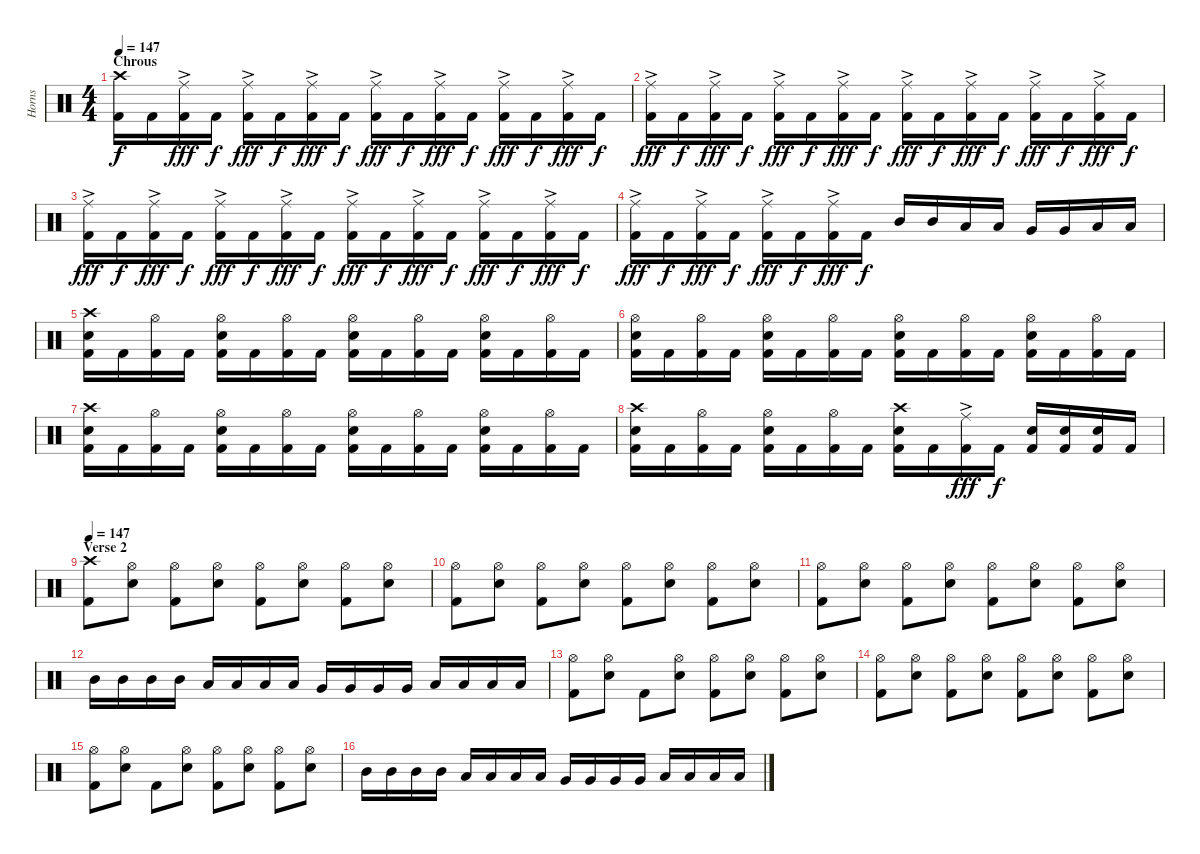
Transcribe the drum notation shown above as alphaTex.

\track ("Horns" "Horns") {instrument percussion}
\staff {score}
\articulation defaults
\ts (4 4)
\section ("" "Chrous")
\tempo 147
\clef neutral
\ks c
("Crash high (hit)" "Kick (hit) 2").16{dy f} "Kick (hit) 2".16 ("Ride (middle)"{ac} "Kick (hit) 2").16{dy fff} "Kick (hit) 2".16{dy f} ("Ride (middle)"{ac} "Kick (hit) 2").16{dy fff} "Kick (hit) 2".16{dy f} ("Ride (middle)"{ac} "Kick (hit) 2").16{dy fff} "Kick (hit) 2".16{dy f} ("Ride (middle)"{ac} "Kick (hit) 2").16{dy fff} "Kick (hit) 2".16{dy f} ("Ride (middle)"{ac} "Kick (hit) 2").16{dy fff} "Kick (hit) 2".16{dy f} ("Ride (middle)"{ac} "Kick (hit) 2").16{dy fff} "Kick (hit) 2".16{dy f} ("Ride (middle)"{ac} "Kick (hit) 2").16{dy fff} "Kick (hit) 2".16{dy f} |
("Ride (middle)"{ac} "Kick (hit) 2").16{dy fff} "Kick (hit) 2".16{dy f} ("Ride (middle)"{ac} "Kick (hit) 2").16{dy fff} "Kick (hit) 2".16{dy f} ("Ride (middle)"{ac} "Kick (hit) 2").16{dy fff} "Kick (hit) 2".16{dy f} ("Ride (middle)"{ac} "Kick (hit) 2").16{dy fff} "Kick (hit) 2".16{dy f} ("Ride (middle)"{ac} "Kick (hit) 2").16{dy fff} "Kick (hit) 2".16{dy f} ("Ride (middle)"{ac} "Kick (hit) 2").16{dy fff} "Kick (hit) 2".16{dy f} ("Ride (middle)"{ac} "Kick (hit) 2").16{dy fff} "Kick (hit) 2".16{dy f} ("Ride (middle)"{ac} "Kick (hit) 2").16{dy fff} "Kick (hit) 2".16{dy f} |
("Ride (middle)"{ac} "Kick (hit) 2").16{dy fff} "Kick (hit) 2".16{dy f} ("Ride (middle)"{ac} "Kick (hit) 2").16{dy fff} "Kick (hit) 2".16{dy f} ("Ride (middle)"{ac} "Kick (hit) 2").16{dy fff} "Kick (hit) 2".16{dy f} ("Ride (middle)"{ac} "Kick (hit) 2").16{dy fff} "Kick (hit) 2".16{dy f} ("Ride (middle)"{ac} "Kick (hit) 2").16{dy fff} "Kick (hit) 2".16{dy f} ("Ride (middle)"{ac} "Kick (hit) 2").16{dy fff} "Kick (hit) 2".16{dy f} ("Ride (middle)"{ac} "Kick (hit) 2").16{dy fff} "Kick (hit) 2".16{dy f} ("Ride (middle)"{ac} "Kick (hit) 2").16{dy fff} "Kick (hit) 2".16{dy f} |
("Ride (middle)"{ac} "Kick (hit) 2").16{dy fff} "Kick (hit) 2".16{dy f} ("Ride (middle)"{ac} "Kick (hit) 2").16{dy fff} "Kick (hit) 2".16{dy f} ("Ride (middle)"{ac} "Kick (hit) 2").16{dy fff} "Kick (hit) 2".16{dy f} ("Ride (middle)"{ac} "Kick (hit) 2").16{dy fff} "Kick (hit) 2".16{dy f} "Mid Tom (hit)".16 "Mid Tom (hit)".16 "Low Tom (hit)".16 "Low Tom (hit)".16 "Very Low Tom (hit)".16 "Very Low Tom (hit)".16 "Low Floor Tom (hit)".16 "Low Floor Tom (hit)".16 |
("Crash high (hit)" "Snare (hit) 2" "Kick (hit) 2").16 "Kick (hit) 2".16 ("Hi-Hat (open)" "Kick (hit) 2").16 "Kick (hit) 2".16 ("Hi-Hat (open)" "Snare (hit) 2" "Kick (hit) 2").16 "Kick (hit) 2".16 ("Hi-Hat (open)" "Kick (hit) 2").16 "Kick (hit) 2".16 ("Hi-Hat (open)" "Snare (hit) 2" "Kick (hit) 2").16 "Kick (hit) 2".16 ("Hi-Hat (open)" "Kick (hit) 2").16 "Kick (hit) 2".16 ("Hi-Hat (open)" "Snare (hit) 2" "Kick (hit) 2").16 "Kick (hit) 2".16 ("Hi-Hat (open)" "Kick (hit) 2").16 "Kick (hit) 2".16 |
("Hi-Hat (open)" "Snare (hit) 2" "Kick (hit) 2").16 "Kick (hit) 2".16 ("Hi-Hat (open)" "Kick (hit) 2").16 "Kick (hit) 2".16 ("Hi-Hat (open)" "Snare (hit) 2" "Kick (hit) 2").16 "Kick (hit) 2".16 ("Hi-Hat (open)" "Kick (hit) 2").16 "Kick (hit) 2".16 ("Hi-Hat (open)" "Snare (hit) 2" "Kick (hit) 2").16 "Kick (hit) 2".16 ("Hi-Hat (open)" "Kick (hit) 2").16 "Kick (hit) 2".16 ("Hi-Hat (open)" "Snare (hit) 2" "Kick (hit) 2").16 "Kick (hit) 2".16 ("Hi-Hat (open)" "Kick (hit) 2").16 "Kick (hit) 2".16 |
("Crash high (hit)" "Snare (hit) 2" "Kick (hit) 2").16 "Kick (hit) 2".16 ("Hi-Hat (open)" "Kick (hit) 2").16 "Kick (hit) 2".16 ("Hi-Hat (open)" "Snare (hit) 2" "Kick (hit) 2").16 "Kick (hit) 2".16 ("Hi-Hat (open)" "Kick (hit) 2").16 "Kick (hit) 2".16 ("Hi-Hat (open)" "Snare (hit) 2" "Kick (hit) 2").16 "Kick (hit) 2".16 ("Hi-Hat (open)" "Kick (hit) 2").16 "Kick (hit) 2".16 ("Hi-Hat (open)" "Snare (hit) 2" "Kick (hit) 2").16 "Kick (hit) 2".16 ("Hi-Hat (open)" "Kick (hit) 2").16 "Kick (hit) 2".16 |
("Crash high (hit)" "Snare (hit) 2" "Kick (hit) 2").16 "Kick (hit) 2".16 ("Hi-Hat (open)" "Kick (hit) 2").16 "Kick (hit) 2".16 ("Hi-Hat (open)" "Snare (hit) 2" "Kick (hit) 2").16 "Kick (hit) 2".16 ("Hi-Hat (open)" "Kick (hit) 2").16 "Kick (hit) 2".16 ("Crash high (hit)" "Snare (hit) 2" "Kick (hit) 2").16 "Kick (hit) 2".16 ("Ride (middle)"{ac} "Kick (hit) 2").16{dy fff} "Kick (hit) 2".16{dy f} ("Snare (hit) 2" "Kick (hit) 2").16 ("Snare (hit) 2" "Kick (hit) 2").16 ("Snare (hit) 2" "Kick (hit) 2").16 "Kick (hit) 2".16 |
\section ("" "Verse 2")
\tempo 147
("Crash high (hit)" "Kick (hit) 2").8 ("Hi-Hat (open)" "Snare (hit) 2").8 ("Hi-Hat (open)" "Kick (hit) 2").8 ("Hi-Hat (open)" "Snare (hit) 2").8 ("Hi-Hat (open)" "Kick (hit) 2").8 ("Hi-Hat (open)" "Snare (hit) 2").8 ("Hi-Hat (open)" "Kick (hit) 2").8 ("Hi-Hat (open)" "Snare (hit) 2").8 |
("Hi-Hat (open)" "Kick (hit) 2").8 ("Hi-Hat (open)" "Snare (hit) 2").8 ("Hi-Hat (open)" "Kick (hit) 2").8 ("Hi-Hat (open)" "Snare (hit) 2").8 ("Hi-Hat (open)" "Kick (hit) 2").8 ("Hi-Hat (open)" "Snare (hit) 2").8 ("Hi-Hat (open)" "Kick (hit) 2").8 ("Hi-Hat (open)" "Snare (hit) 2").8 |
("Hi-Hat (open)" "Kick (hit) 2").8 ("Hi-Hat (open)" "Snare (hit) 2").8 ("Hi-Hat (open)" "Kick (hit) 2").8 ("Hi-Hat (open)" "Snare (hit) 2").8 ("Hi-Hat (open)" "Kick (hit) 2").8 ("Hi-Hat (open)" "Snare (hit) 2").8 ("Hi-Hat (open)" "Kick (hit) 2").8 ("Hi-Hat (open)" "Snare (hit) 2").8 |
"Mid Tom (hit)".16 "Mid Tom (hit)".16 "Mid Tom (hit)".16 "Mid Tom (hit)".16 "Low Tom (hit)".16 "Low Tom (hit)".16 "Low Tom (hit)".16 "Low Tom (hit)".16 "Very Low Tom (hit)".16 "Very Low Tom (hit)".16 "Very Low Tom (hit)".16 "Very Low Tom (hit)".16 "Low Floor Tom (hit)".16 "Low Floor Tom (hit)".16 "Low Floor Tom (hit)".16 "Low Floor Tom (hit)".16 |
("Hi-Hat (open)" "Kick (hit) 2").8 ("Hi-Hat (open)" "Snare (hit) 2").8 "Kick (hit) 2".8 ("Hi-Hat (open)" "Snare (hit) 2").8 ("Hi-Hat (open)" "Kick (hit) 2").8 ("Hi-Hat (open)" "Snare (hit) 2").8 ("Hi-Hat (open)" "Kick (hit) 2").8 ("Hi-Hat (open)" "Snare (hit) 2").8 |
("Hi-Hat (open)" "Kick (hit) 2").8 ("Hi-Hat (open)" "Snare (hit) 2").8 ("Hi-Hat (open)" "Kick (hit) 2").8 ("Hi-Hat (open)" "Snare (hit) 2").8 ("Hi-Hat (open)" "Kick (hit) 2").8 ("Hi-Hat (open)" "Snare (hit) 2").8 ("Hi-Hat (open)" "Kick (hit) 2").8 ("Hi-Hat (open)" "Snare (hit) 2").8 |
("Hi-Hat (open)" "Kick (hit) 2").8 ("Hi-Hat (open)" "Snare (hit) 2").8 "Kick (hit) 2".8 ("Hi-Hat (open)" "Snare (hit) 2").8 ("Hi-Hat (open)" "Kick (hit) 2").8 ("Hi-Hat (open)" "Snare (hit) 2").8 ("Hi-Hat (open)" "Kick (hit) 2").8 ("Hi-Hat (open)" "Snare (hit) 2").8 |
"Mid Tom (hit)".16 "Mid Tom (hit)".16 "Mid Tom (hit)".16 "Mid Tom (hit)".16 "Low Tom (hit)".16 "Low Tom (hit)".16 "Low Tom (hit)".16 "Low Tom (hit)".16 "Very Low Tom (hit)".16 "Very Low Tom (hit)".16 "Very Low Tom (hit)".16 "Very Low Tom (hit)".16 "Low Floor Tom (hit)".16 "Low Floor Tom (hit)".16 "Low Floor Tom (hit)".16 "Low Floor Tom (hit)".16
